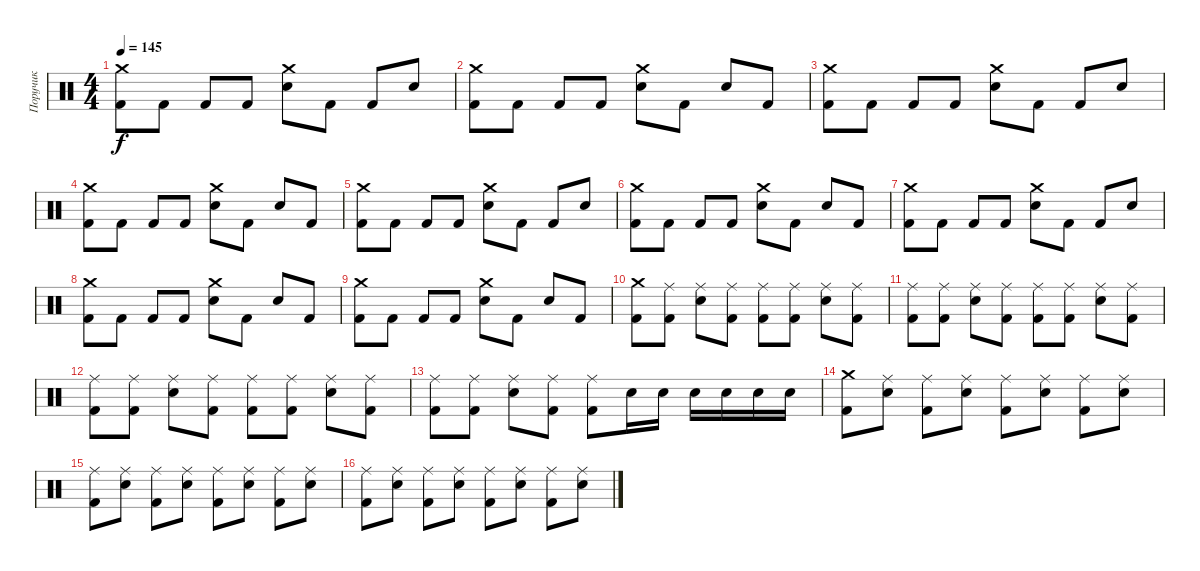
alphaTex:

\track ("Поручик" "Поручик") {instrument percussion}
\staff {score}
\articulation defaults
\ts (4 4)
\tempo 145
\clef neutral
\ks c
("Crash medium (hit)" "Kick (hit) 2").8{dy f} "Kick (hit) 2".8 "Kick (hit) 2".8 "Kick (hit) 2".8 ("Snare (hit) 2" "Crash medium (hit)").8 "Kick (hit) 2".8 "Kick (hit) 2".8 "Snare (hit) 2".8 |
("Crash medium (hit)" "Kick (hit) 2").8 "Kick (hit) 2".8 "Kick (hit) 2".8 "Kick (hit) 2".8 ("Snare (hit) 2" "Crash medium (hit)").8 "Kick (hit) 2".8 "Snare (hit) 2".8 "Kick (hit) 2".8 |
("Crash medium (hit)" "Kick (hit) 2").8 "Kick (hit) 2".8 "Kick (hit) 2".8 "Kick (hit) 2".8 ("Snare (hit) 2" "Crash medium (hit)").8 "Kick (hit) 2".8 "Kick (hit) 2".8 "Snare (hit) 2".8 |
("Crash medium (hit)" "Kick (hit) 2").8 "Kick (hit) 2".8 "Kick (hit) 2".8 "Kick (hit) 2".8 ("Snare (hit) 2" "Crash medium (hit)").8 "Kick (hit) 2".8 "Snare (hit) 2".8 "Kick (hit) 2".8 |
("Crash medium (hit)" "Kick (hit) 2").8 "Kick (hit) 2".8 "Kick (hit) 2".8 "Kick (hit) 2".8 ("Snare (hit) 2" "Crash medium (hit)").8 "Kick (hit) 2".8 "Kick (hit) 2".8 "Snare (hit) 2".8 |
("Crash medium (hit)" "Kick (hit) 2").8 "Kick (hit) 2".8 "Kick (hit) 2".8 "Kick (hit) 2".8 ("Snare (hit) 2" "Crash medium (hit)").8 "Kick (hit) 2".8 "Snare (hit) 2".8 "Kick (hit) 2".8 |
("Crash medium (hit)" "Kick (hit) 2").8 "Kick (hit) 2".8 "Kick (hit) 2".8 "Kick (hit) 2".8 ("Snare (hit) 2" "Crash medium (hit)").8 "Kick (hit) 2".8 "Kick (hit) 2".8 "Snare (hit) 2".8 |
("Crash medium (hit)" "Kick (hit) 2").8 "Kick (hit) 2".8 "Kick (hit) 2".8 "Kick (hit) 2".8 ("Snare (hit) 2" "Crash medium (hit)").8 "Kick (hit) 2".8 "Snare (hit) 2".8 "Kick (hit) 2".8 |
("Crash medium (hit)" "Kick (hit) 2").8 "Kick (hit) 2".8 "Kick (hit) 2".8 "Kick (hit) 2".8 ("Snare (hit) 2" "Crash medium (hit)").8 "Kick (hit) 2".8 "Snare (hit) 2".8 "Kick (hit) 2".8 |
("Crash medium (hit)" "Kick (hit) 2").8 ("Ride (middle)" "Kick (hit) 2").8 ("Ride (middle)" "Snare (hit) 2").8 ("Ride (middle)" "Kick (hit) 2").8 ("Ride (middle)" "Kick (hit) 2").8 ("Ride (middle)" "Kick (hit) 2").8 ("Ride (middle)" "Snare (hit) 2").8 ("Ride (middle)" "Kick (hit) 2").8 |
("Ride (middle)" "Kick (hit) 2").8 ("Ride (middle)" "Kick (hit) 2").8 ("Ride (middle)" "Snare (hit) 2").8 ("Ride (middle)" "Kick (hit) 2").8 ("Ride (middle)" "Kick (hit) 2").8 ("Ride (middle)" "Kick (hit) 2").8 ("Ride (middle)" "Snare (hit) 2").8 ("Ride (middle)" "Kick (hit) 2").8 |
("Ride (middle)" "Kick (hit) 2").8 ("Ride (middle)" "Kick (hit) 2").8 ("Ride (middle)" "Snare (hit) 2").8 ("Ride (middle)" "Kick (hit) 2").8 ("Ride (middle)" "Kick (hit) 2").8 ("Ride (middle)" "Kick (hit) 2").8 ("Ride (middle)" "Snare (hit) 2").8 ("Ride (middle)" "Kick (hit) 2").8 |
("Ride (middle)" "Kick (hit) 2").8 ("Ride (middle)" "Kick (hit) 2").8 ("Ride (middle)" "Snare (hit) 2").8 ("Ride (middle)" "Kick (hit) 2").8 ("Ride (middle)" "Kick (hit) 2").8 "Snare (hit) 2".16 "Snare (hit) 2".16 "Snare (hit) 2".16 "Snare (hit) 2".16 "Snare (hit) 2".16 "Snare (hit) 2".16 |
("Crash medium (hit)" "Kick (hit) 2").8 ("Ride (middle)" "Snare (hit) 2").8 ("Ride (middle)" "Kick (hit) 2").8 ("Ride (middle)" "Snare (hit) 2").8 ("Ride (middle)" "Kick (hit) 2").8 ("Ride (middle)" "Snare (hit) 2").8 ("Ride (middle)" "Kick (hit) 2").8 ("Ride (middle)" "Snare (hit) 2").8 |
("Ride (middle)" "Kick (hit) 2").8 ("Ride (middle)" "Snare (hit) 2").8 ("Ride (middle)" "Kick (hit) 2").8 ("Ride (middle)" "Snare (hit) 2").8 ("Ride (middle)" "Kick (hit) 2").8 ("Ride (middle)" "Snare (hit) 2").8 ("Ride (middle)" "Kick (hit) 2").8 ("Ride (middle)" "Snare (hit) 2").8 |
("Ride (middle)" "Kick (hit) 2").8 ("Ride (middle)" "Snare (hit) 2").8 ("Ride (middle)" "Kick (hit) 2").8 ("Ride (middle)" "Snare (hit) 2").8 ("Ride (middle)" "Kick (hit) 2").8 ("Ride (middle)" "Snare (hit) 2").8 ("Ride (middle)" "Kick (hit) 2").8 ("Ride (middle)" "Snare (hit) 2").8
